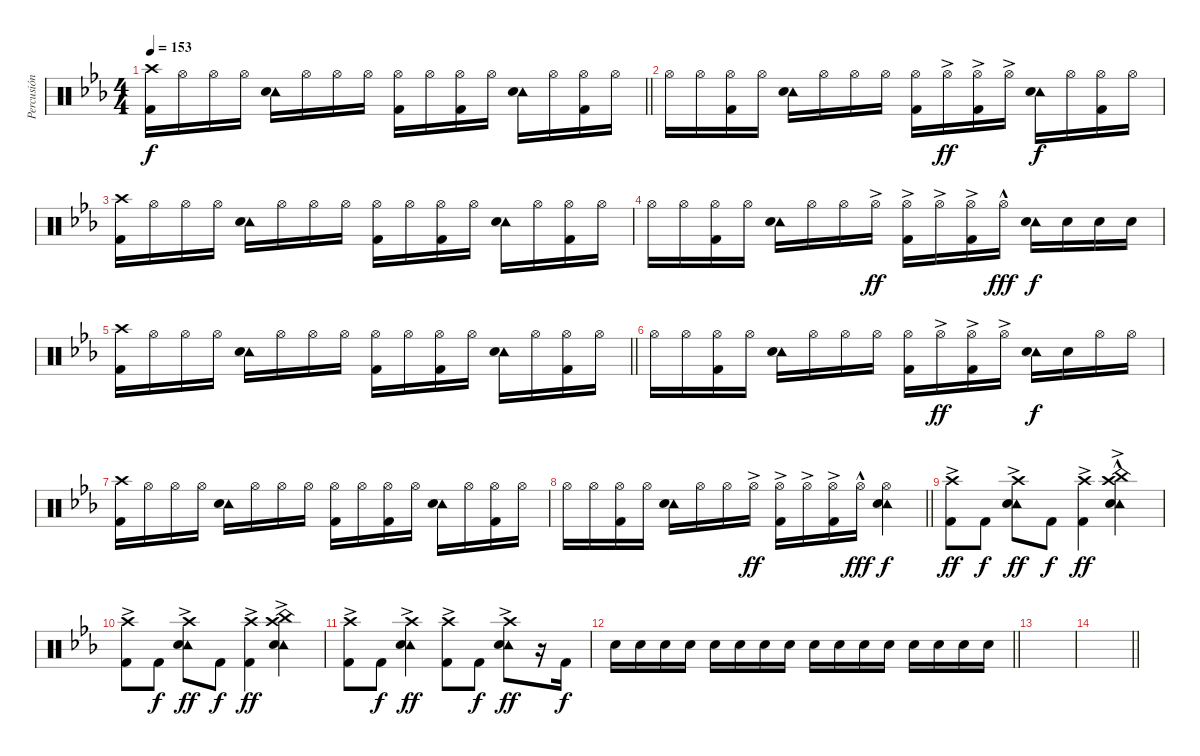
\track ("Percusión" "Percusión") {instrument percussion}
\staff {score}
\articulation defaults
\ts (4 4)
\tempo 153
\clef neutral
\barLineRight lightlight
\ks eb
("Crash high (hit)" "Kick (hit) 2").16{dy f} "Hi-Hat (open)".16 "Hi-Hat (open)".16 "Hi-Hat (open)".16 ("Tambourine (hit)" "Snare (hit) 2").16 "Hi-Hat (open)".16 "Hi-Hat (open)".16 "Hi-Hat (open)".16 ("Hi-Hat (open)" "Kick (hit) 2").16 "Hi-Hat (open)".16 ("Hi-Hat (open)" "Kick (hit) 2").16 "Hi-Hat (open)".16 ("Tambourine (hit)" "Snare (hit) 2").16 "Hi-Hat (open)".16 ("Hi-Hat (open)" "Kick (hit) 2").16 "Hi-Hat (open)".16 |
"Hi-Hat (open)".16 "Hi-Hat (open)".16 ("Hi-Hat (open)" "Kick (hit) 2").16 "Hi-Hat (open)".16 ("Tambourine (hit)" "Snare (hit) 2").16 "Hi-Hat (open)".16 "Hi-Hat (open)".16 "Hi-Hat (open)".16 ("Hi-Hat (open)" "Kick (hit) 2").16 "Hi-Hat (open)"{ac}.16{dy ff} ("Hi-Hat (open)"{ac} "Kick (hit) 2").16 "Hi-Hat (open)"{ac}.16 ("Tambourine (hit)" "Snare (hit) 2").16{dy f} "Hi-Hat (open)".16 ("Hi-Hat (open)" "Kick (hit) 2").16 "Hi-Hat (open)".16 |
("Crash high (hit)" "Kick (hit) 2").16 "Hi-Hat (open)".16 "Hi-Hat (open)".16 "Hi-Hat (open)".16 ("Tambourine (hit)" "Snare (hit) 2").16 "Hi-Hat (open)".16 "Hi-Hat (open)".16 "Hi-Hat (open)".16 ("Hi-Hat (open)" "Kick (hit) 2").16 "Hi-Hat (open)".16 ("Hi-Hat (open)" "Kick (hit) 2").16 "Hi-Hat (open)".16 ("Tambourine (hit)" "Snare (hit) 2").16 "Hi-Hat (open)".16 ("Hi-Hat (open)" "Kick (hit) 2").16 "Hi-Hat (open)".16 |
"Hi-Hat (open)".16 "Hi-Hat (open)".16 ("Hi-Hat (open)" "Kick (hit) 2").16 "Hi-Hat (open)".16 ("Tambourine (hit)" "Snare (hit) 2").16 "Hi-Hat (open)".16 "Hi-Hat (open)".16 "Hi-Hat (open)"{ac}.16{dy ff} ("Hi-Hat (open)"{ac} "Kick (hit) 2").16 "Hi-Hat (open)"{ac}.16 ("Hi-Hat (open)"{ac} "Kick (hit) 2").16 "Hi-Hat (open)"{hac}.16{dy fff} ("Tambourine (hit)" "Snare (hit) 2").16{dy f} "Snare (hit) 2".16 "Snare (hit) 2".16 "Snare (hit) 2".16 |
\barLineRight lightlight
("Crash high (hit)" "Kick (hit) 2").16 "Hi-Hat (open)".16 "Hi-Hat (open)".16 "Hi-Hat (open)".16 ("Tambourine (hit)" "Snare (hit) 2").16 "Hi-Hat (open)".16 "Hi-Hat (open)".16 "Hi-Hat (open)".16 ("Hi-Hat (open)" "Kick (hit) 2").16 "Hi-Hat (open)".16 ("Hi-Hat (open)" "Kick (hit) 2").16 "Hi-Hat (open)".16 ("Tambourine (hit)" "Snare (hit) 2").16 "Hi-Hat (open)".16 ("Hi-Hat (open)" "Kick (hit) 2").16 "Hi-Hat (open)".16 |
"Hi-Hat (open)".16 "Hi-Hat (open)".16 ("Hi-Hat (open)" "Kick (hit) 2").16 "Hi-Hat (open)".16 ("Tambourine (hit)" "Snare (hit) 2").16 "Hi-Hat (open)".16 "Hi-Hat (open)".16 "Hi-Hat (open)".16 ("Hi-Hat (open)" "Kick (hit) 2").16 "Hi-Hat (open)"{ac}.16{dy ff} ("Hi-Hat (open)"{ac} "Kick (hit) 2").16 "Hi-Hat (open)"{ac}.16 ("Tambourine (hit)" "Snare (hit) 2").16{dy f} "Snare (hit) 2".16 "Hi-Hat (open)".16 "Hi-Hat (open)".16 |
("Crash high (hit)" "Kick (hit) 2").16 "Hi-Hat (open)".16 "Hi-Hat (open)".16 "Hi-Hat (open)".16 ("Tambourine (hit)" "Snare (hit) 2").16 "Hi-Hat (open)".16 "Hi-Hat (open)".16 "Hi-Hat (open)".16 ("Hi-Hat (open)" "Kick (hit) 2").16 "Hi-Hat (open)".16 ("Hi-Hat (open)" "Kick (hit) 2").16 "Hi-Hat (open)".16 ("Tambourine (hit)" "Snare (hit) 2").16 "Hi-Hat (open)".16 ("Hi-Hat (open)" "Kick (hit) 2").16 "Hi-Hat (open)".16 |
\barLineRight lightlight "Hi-Hat (open)".16 "Hi-Hat (open)".16
("Hi-Hat (open)" "Kick (hit) 2").16 "Hi-Hat (open)".16 ("Tambourine (hit)" "Snare (hit) 2").16 "Hi-Hat (open)".16 "Hi-Hat (open)".16 "Hi-Hat (open)"{ac}.16{dy ff} ("Hi-Hat (open)"{ac} "Kick (hit) 2").16 "Hi-Hat (open)"{ac}.16 ("Hi-Hat (open)"{ac} "Kick (hit) 2").16 "Hi-Hat (open)"{hac}.16{dy fff} ("Tambourine (hit)" "Hi-Hat (open)" "Snare (hit) 2").4{dy f} |
("Crash high (hit)"{ac} "Kick (hit) 2").8{dy ff} "Kick (hit) 2".8{dy f} ("Tambourine (hit)" "Crash high (hit)"{ac} "Snare (hit) 2").8{dy ff} "Kick (hit) 2".8{dy f} ("Crash high (hit)"{ac} "Kick (hit) 2").4{dy ff} ("Tambourine (hit)" "China (hit)"{hac} "Crash high (hit)"{ac} "Snare (hit) 2").4 |
("Crash high (hit)"{ac} "Kick (hit) 2").8 "Kick (hit) 2".8{dy f} ("Tambourine (hit)" "Crash high (hit)"{ac} "Snare (hit) 2").8{dy ff} "Kick (hit) 2".8{dy f} ("Crash high (hit)"{ac} "Kick (hit) 2").4{dy ff} ("Tambourine (hit)" "China (hit)"{ac} "Crash high (hit)"{ac} "Snare (hit) 2").4 |
("Crash high (hit)"{ac} "Kick (hit) 2").8 "Kick (hit) 2".8{dy f} ("Tambourine (hit)" "Crash high (hit)"{ac} "Snare (hit) 2").4{dy ff} ("Crash high (hit)"{ac} "Kick (hit) 2").8 "Kick (hit) 2".8{dy f} ("Tambourine (hit)" "Crash high (hit)"{ac} "Snare (hit) 2").8{dy ff} r.16 "Kick (hit) 2".16{dy f} |
\barLineRight lightlight "Snare (hit) 2".16 "Snare (hit) 2".16 "Snare (hit) 2".16 "Snare (hit) 2".16 "Snare (hit) 2".16 "Snare (hit) 2".16 "Snare (hit) 2".16 "Snare (hit) 2".16 "Snare (hit) 2".16 "Snare (hit) 2".16 "Snare (hit) 2".16 "Snare (hit) 2".16 "Snare (hit) 2".16 "Snare (hit) 2".16 "Snare (hit) 2".16 "Snare (hit) 2".16
|
|
\barLineRight lightlight
